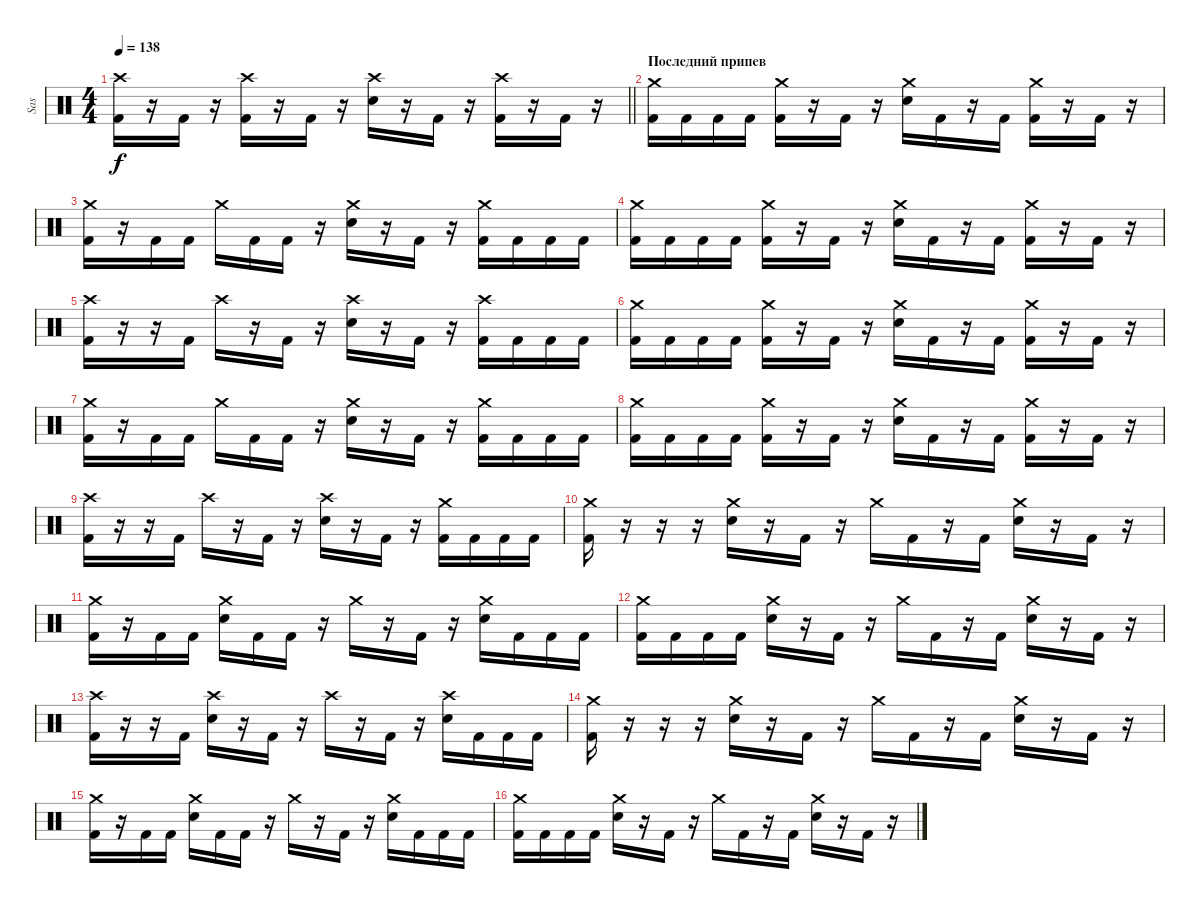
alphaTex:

\track ("Sas" "Sas") {instrument percussion}
\staff {score}
\articulation defaults
\ts (4 4)
\tempo 138
\clef neutral
\barLineRight lightlight
\ks c
("Crash high (hit)" "Kick (hit) 2").16{dy f} r.16 "Kick (hit) 2".16 r.16 ("Crash high (hit)" "Kick (hit) 2").16 r.16 "Kick (hit) 2".16 r.16 ("Crash high (hit)" "Snare (hit) 2").16 r.16 "Kick (hit) 2".16 r.16 ("Crash high (hit)" "Kick (hit) 2").16 r.16 "Kick (hit) 2".16 r.16 |
\section ("" "Последний припев")
("Crash medium (hit)" "Kick (hit) 2").16 "Kick (hit) 2".16 "Kick (hit) 2".16 "Kick (hit) 2".16 ("Crash medium (hit)" "Kick (hit) 2").16 r.16 "Kick (hit) 2".16 r.16 ("Crash medium (hit)" "Snare (hit) 2").16 "Kick (hit) 2".16 r.16 "Kick (hit) 2".16 ("Crash medium (hit)" "Kick (hit) 2").16 r.16 "Kick (hit) 2".16 r.16 |
("Crash medium (hit)" "Kick (hit) 2").16 r.16 "Kick (hit) 2".16 "Kick (hit) 2".16 "Crash medium (hit)".16 "Kick (hit) 2".16 "Kick (hit) 2".16 r.16 ("Crash medium (hit)" "Snare (hit) 2").16 r.16 "Kick (hit) 2".16 r.16 ("Crash medium (hit)" "Kick (hit) 2").16 "Kick (hit) 2".16 "Kick (hit) 2".16 "Kick (hit) 2".16 |
("Crash medium (hit)" "Kick (hit) 2").16 "Kick (hit) 2".16 "Kick (hit) 2".16 "Kick (hit) 2".16 ("Crash medium (hit)" "Kick (hit) 2").16 r.16 "Kick (hit) 2".16 r.16 ("Crash medium (hit)" "Snare (hit) 2").16 "Kick (hit) 2".16 r.16 "Kick (hit) 2".16 ("Crash medium (hit)" "Kick (hit) 2").16 r.16 "Kick (hit) 2".16 r.16 |
("Crash high (hit)" "Kick (hit) 2").16 r.16 r.16 "Kick (hit) 2".16 "Crash high (hit)".16 r.16 "Kick (hit) 2".16 r.16 ("Crash high (hit)" "Snare (hit) 2").16 r.16 "Kick (hit) 2".16 r.16 ("Crash high (hit)" "Kick (hit) 2").16 "Kick (hit) 2".16 "Kick (hit) 2".16 "Kick (hit) 2".16 |
("Crash medium (hit)" "Kick (hit) 2").16 "Kick (hit) 2".16 "Kick (hit) 2".16 "Kick (hit) 2".16 ("Crash medium (hit)" "Kick (hit) 2").16 r.16 "Kick (hit) 2".16 r.16 ("Crash medium (hit)" "Snare (hit) 2").16 "Kick (hit) 2".16 r.16 "Kick (hit) 2".16 ("Crash medium (hit)" "Kick (hit) 2").16 r.16 "Kick (hit) 2".16 r.16 |
("Crash medium (hit)" "Kick (hit) 2").16 r.16 "Kick (hit) 2".16 "Kick (hit) 2".16 "Crash medium (hit)".16 "Kick (hit) 2".16 "Kick (hit) 2".16 r.16 ("Crash medium (hit)" "Snare (hit) 2").16 r.16 "Kick (hit) 2".16 r.16 ("Crash medium (hit)" "Kick (hit) 2").16 "Kick (hit) 2".16 "Kick (hit) 2".16 "Kick (hit) 2".16 |
("Crash medium (hit)" "Kick (hit) 2").16 "Kick (hit) 2".16 "Kick (hit) 2".16 "Kick (hit) 2".16 ("Crash medium (hit)" "Kick (hit) 2").16 r.16 "Kick (hit) 2".16 r.16 ("Crash medium (hit)" "Snare (hit) 2").16 "Kick (hit) 2".16 r.16 "Kick (hit) 2".16 ("Crash medium (hit)" "Kick (hit) 2").16 r.16 "Kick (hit) 2".16 r.16 |
("Crash high (hit)" "Kick (hit) 2").16 r.16 r.16 "Kick (hit) 2".16 "Crash high (hit)".16 r.16 "Kick (hit) 2".16 r.16 ("Crash high (hit)" "Snare (hit) 2").16 r.16 "Kick (hit) 2".16 r.16 ("Crash medium (hit)" "Kick (hit) 2").16 "Kick (hit) 2".16 "Kick (hit) 2".16 "Kick (hit) 2".16 |
("Crash medium (hit)" "Kick (hit) 2").16 r.16 r.16 r.16 ("Crash medium (hit)" "Snare (hit) 2").16 r.16 "Kick (hit) 2".16 r.16 "Crash medium (hit)".16 "Kick (hit) 2".16 r.16 "Kick (hit) 2".16 ("Crash medium (hit)" "Snare (hit) 2").16 r.16 "Kick (hit) 2".16 r.16 |
("Crash medium (hit)" "Kick (hit) 2").16 r.16 "Kick (hit) 2".16 "Kick (hit) 2".16 ("Crash medium (hit)" "Snare (hit) 2").16 "Kick (hit) 2".16 "Kick (hit) 2".16 r.16 "Crash medium (hit)".16 r.16 "Kick (hit) 2".16 r.16 ("Crash medium (hit)" "Snare (hit) 2").16 "Kick (hit) 2".16 "Kick (hit) 2".16 "Kick (hit) 2".16 |
("Crash medium (hit)" "Kick (hit) 2").16 "Kick (hit) 2".16 "Kick (hit) 2".16 "Kick (hit) 2".16 ("Crash medium (hit)" "Snare (hit) 2").16 r.16 "Kick (hit) 2".16 r.16 "Crash medium (hit)".16 "Kick (hit) 2".16 r.16 "Kick (hit) 2".16 ("Crash medium (hit)" "Snare (hit) 2").16 r.16 "Kick (hit) 2".16 r.16 |
("Crash high (hit)" "Kick (hit) 2").16 r.16 r.16 "Kick (hit) 2".16 ("Crash high (hit)" "Snare (hit) 2").16 r.16 "Kick (hit) 2".16 r.16 "Crash high (hit)".16 r.16 "Kick (hit) 2".16 r.16 ("Crash high (hit)" "Snare (hit) 2").16 "Kick (hit) 2".16 "Kick (hit) 2".16 "Kick (hit) 2".16 |
("Crash medium (hit)" "Kick (hit) 2").16 r.16 r.16 r.16 ("Crash medium (hit)" "Snare (hit) 2").16 r.16 "Kick (hit) 2".16 r.16 "Crash medium (hit)".16 "Kick (hit) 2".16 r.16 "Kick (hit) 2".16 ("Crash medium (hit)" "Snare (hit) 2").16 r.16 "Kick (hit) 2".16 r.16 |
("Crash medium (hit)" "Kick (hit) 2").16 r.16 "Kick (hit) 2".16 "Kick (hit) 2".16 ("Crash medium (hit)" "Snare (hit) 2").16 "Kick (hit) 2".16 "Kick (hit) 2".16 r.16 "Crash medium (hit)".16 r.16 "Kick (hit) 2".16 r.16 ("Crash medium (hit)" "Snare (hit) 2").16 "Kick (hit) 2".16 "Kick (hit) 2".16 "Kick (hit) 2".16 |
("Crash medium (hit)" "Kick (hit) 2").16 "Kick (hit) 2".16 "Kick (hit) 2".16 "Kick (hit) 2".16 ("Crash medium (hit)" "Snare (hit) 2").16 r.16 "Kick (hit) 2".16 r.16 "Crash medium (hit)".16 "Kick (hit) 2".16 r.16 "Kick (hit) 2".16 ("Crash medium (hit)" "Snare (hit) 2").16 r.16 "Kick (hit) 2".16 r.16
